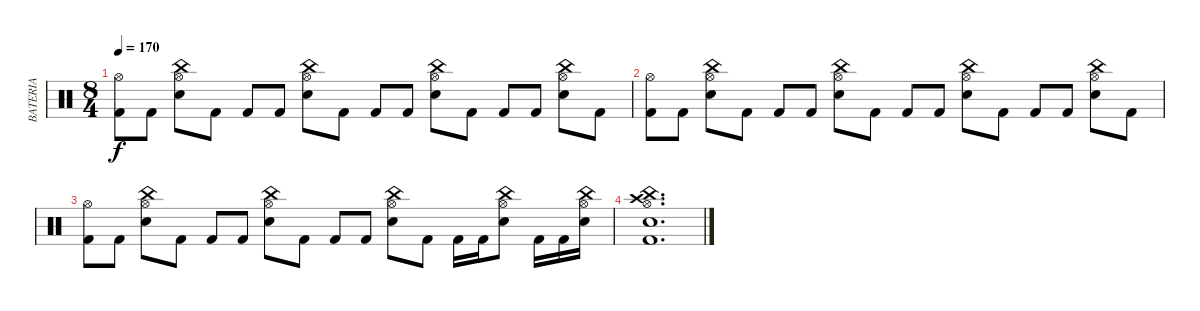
\track ("BATERIA" "BATERIA") {instrument percussion}
\staff {score}
\articulation defaults
\ts (8 4)
\tempo 170
\clef neutral
\ks c
("Kick (hit) 2" "Hi-Hat (open)").8{dy f} "Kick (hit) 2".8 ("Snare (hit) 2" "Hi-Hat (open)" "China (hit)").8 "Kick (hit) 2".8 "Kick (hit) 2".8 "Kick (hit) 2".8 ("Snare (hit) 2" "Hi-Hat (open)" "China (hit)").8 "Kick (hit) 2".8 "Kick (hit) 2".8 "Kick (hit) 2".8 ("Snare (hit) 2" "Hi-Hat (open)" "China (hit)").8 "Kick (hit) 2".8 "Kick (hit) 2".8 "Kick (hit) 2".8 ("Snare (hit) 2" "Hi-Hat (open)" "China (hit)").8 "Kick (hit) 2".8 |
("Kick (hit) 2" "Hi-Hat (open)").8 "Kick (hit) 2".8 ("Snare (hit) 2" "Hi-Hat (open)" "China (hit)").8 "Kick (hit) 2".8 "Kick (hit) 2".8 "Kick (hit) 2".8 ("Snare (hit) 2" "Hi-Hat (open)" "China (hit)").8 "Kick (hit) 2".8 "Kick (hit) 2".8 "Kick (hit) 2".8 ("Snare (hit) 2" "Hi-Hat (open)" "China (hit)").8 "Kick (hit) 2".8 "Kick (hit) 2".8 "Kick (hit) 2".8 ("Snare (hit) 2" "Hi-Hat (open)" "China (hit)").8 "Kick (hit) 2".8 |
("Kick (hit) 2" "Hi-Hat (open)").8 "Kick (hit) 2".8 ("Snare (hit) 2" "Hi-Hat (open)" "China (hit)").8 "Kick (hit) 2".8 "Kick (hit) 2".8 "Kick (hit) 2".8 ("Snare (hit) 2" "Hi-Hat (open)" "China (hit)").8 "Kick (hit) 2".8 "Kick (hit) 2".8 "Kick (hit) 2".8 ("Snare (hit) 2" "Hi-Hat (open)" "China (hit)").8 "Kick (hit) 2".8 "Kick (hit) 2".16 "Kick (hit) 2".16 ("Snare (hit) 2" "Hi-Hat (open)" "China (hit)").8 "Kick (hit) 2".16 "Kick (hit) 2".16 ("Snare (hit) 2" "China (hit)" "Hi-Hat (open)").16 |
("Kick (hit) 2" "Snare (hit) 2" "China (hit)" "Hi-Hat (open)" "Crash high (hit)").1{d}
